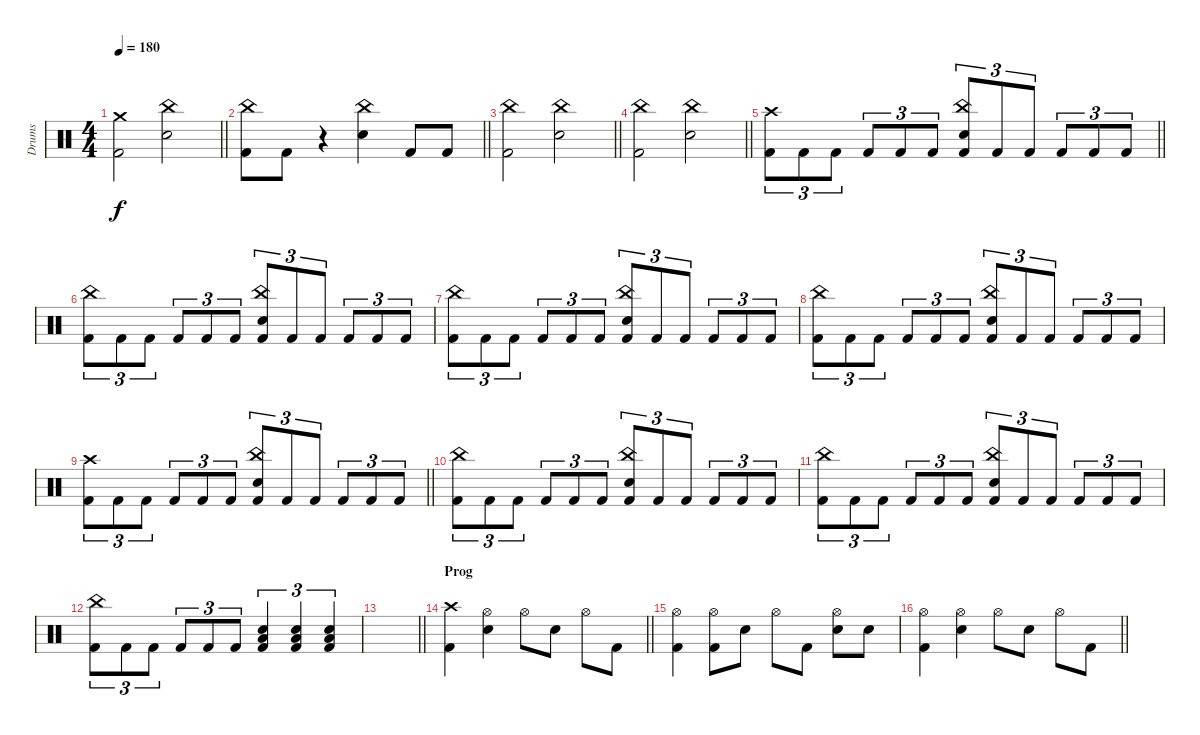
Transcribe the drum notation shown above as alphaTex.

\track ("Drums" "Drums") {instrument percussion}
\staff {score}
\articulation defaults
\ts (4 4)
\tempo 180
\clef neutral
\barLineRight lightlight
\ks c
("Crash medium (hit)" "Kick (hit) 2").2{dy f} ("China (hit)" "Snare (hit) 2").2 |
\barLineRight lightlight
("China (hit)" "Kick (hit) 2").8 "Kick (hit) 2".8 r.4 ("China (hit)" "Snare (hit) 2").4 "Kick (hit) 2".8 "Kick (hit) 2".8 |
\barLineRight lightlight
("China (hit)" "Kick (hit) 2").2 ("China (hit)" "Snare (hit) 2").2 |
\barLineRight lightlight
("China (hit)" "Kick (hit) 2").2 ("China (hit)" "Snare (hit) 2").2 |
\barLineRight lightlight
("Crash high (hit)" "Kick (hit) 2").8{tu (3 2)} "Kick (hit) 2".8{tu (3 2)} "Kick (hit) 2".8{tu (3 2)} "Kick (hit) 2".8{tu (3 2)} "Kick (hit) 2".8{tu (3 2)} "Kick (hit) 2".8{tu (3 2)} ("China (hit)" "Snare (hit) 2" "Kick (hit) 2").8{tu (3 2)} "Kick (hit) 2".8{tu (3 2)} "Kick (hit) 2".8{tu (3 2)} "Kick (hit) 2".8{tu (3 2)} "Kick (hit) 2".8{tu (3 2)} "Kick (hit) 2".8{tu (3 2)} |
("China (hit)" "Kick (hit) 2").8{tu (3 2)} "Kick (hit) 2".8{tu (3 2)} "Kick (hit) 2".8{tu (3 2)} "Kick (hit) 2".8{tu (3 2)} "Kick (hit) 2".8{tu (3 2)} "Kick (hit) 2".8{tu (3 2)} ("China (hit)" "Snare (hit) 2" "Kick (hit) 2").8{tu (3 2)} "Kick (hit) 2".8{tu (3 2)} "Kick (hit) 2".8{tu (3 2)} "Kick (hit) 2".8{tu (3 2)} "Kick (hit) 2".8{tu (3 2)} "Kick (hit) 2".8{tu (3 2)} |
("China (hit)" "Kick (hit) 2").8{tu (3 2)} "Kick (hit) 2".8{tu (3 2)} "Kick (hit) 2".8{tu (3 2)} "Kick (hit) 2".8{tu (3 2)} "Kick (hit) 2".8{tu (3 2)} "Kick (hit) 2".8{tu (3 2)} ("China (hit)" "Snare (hit) 2" "Kick (hit) 2").8{tu (3 2)} "Kick (hit) 2".8{tu (3 2)} "Kick (hit) 2".8{tu (3 2)} "Kick (hit) 2".8{tu (3 2)} "Kick (hit) 2".8{tu (3 2)} "Kick (hit) 2".8{tu (3 2)} |
("China (hit)" "Kick (hit) 2").8{tu (3 2)} "Kick (hit) 2".8{tu (3 2)} "Kick (hit) 2".8{tu (3 2)} "Kick (hit) 2".8{tu (3 2)} "Kick (hit) 2".8{tu (3 2)} "Kick (hit) 2".8{tu (3 2)} ("China (hit)" "Snare (hit) 2" "Kick (hit) 2").8{tu (3 2)} "Kick (hit) 2".8{tu (3 2)} "Kick (hit) 2".8{tu (3 2)} "Kick (hit) 2".8{tu (3 2)} "Kick (hit) 2".8{tu (3 2)} "Kick (hit) 2".8{tu (3 2)} |
\barLineRight lightlight
("Crash high (hit)" "Kick (hit) 2").8{tu (3 2)} "Kick (hit) 2".8{tu (3 2)} "Kick (hit) 2".8{tu (3 2)} "Kick (hit) 2".8{tu (3 2)} "Kick (hit) 2".8{tu (3 2)} "Kick (hit) 2".8{tu (3 2)} ("China (hit)" "Snare (hit) 2" "Kick (hit) 2").8{tu (3 2)} "Kick (hit) 2".8{tu (3 2)} "Kick (hit) 2".8{tu (3 2)} "Kick (hit) 2".8{tu (3 2)} "Kick (hit) 2".8{tu (3 2)} "Kick (hit) 2".8{tu (3 2)} |
("China (hit)" "Kick (hit) 2").8{tu (3 2)} "Kick (hit) 2".8{tu (3 2)} "Kick (hit) 2".8{tu (3 2)} "Kick (hit) 2".8{tu (3 2)} "Kick (hit) 2".8{tu (3 2)} "Kick (hit) 2".8{tu (3 2)} ("China (hit)" "Snare (hit) 2" "Kick (hit) 2").8{tu (3 2)} "Kick (hit) 2".8{tu (3 2)} "Kick (hit) 2".8{tu (3 2)} "Kick (hit) 2".8{tu (3 2)} "Kick (hit) 2".8{tu (3 2)} "Kick (hit) 2".8{tu (3 2)} |
("China (hit)" "Kick (hit) 2").8{tu (3 2)} "Kick (hit) 2".8{tu (3 2)} "Kick (hit) 2".8{tu (3 2)} "Kick (hit) 2".8{tu (3 2)} "Kick (hit) 2".8{tu (3 2)} "Kick (hit) 2".8{tu (3 2)} ("China (hit)" "Snare (hit) 2" "Kick (hit) 2").8{tu (3 2)} "Kick (hit) 2".8{tu (3 2)} "Kick (hit) 2".8{tu (3 2)} "Kick (hit) 2".8{tu (3 2)} "Kick (hit) 2".8{tu (3 2)} "Kick (hit) 2".8{tu (3 2)} |
("China (hit)" "Kick (hit) 2").8{tu (3 2)} "Kick (hit) 2".8{tu (3 2)} "Kick (hit) 2".8{tu (3 2)} "Kick (hit) 2".8{tu (3 2)} "Kick (hit) 2".8{tu (3 2)} "Kick (hit) 2".8{tu (3 2)} ("Low Tom (hit)" "Snare (hit) 2" "Kick (hit) 2").4{tu (3 2)} ("Low Tom (hit)" "Snare (hit) 2" "Kick (hit) 2").4{tu (3 2)} ("Low Tom (hit)" "Snare (hit) 2" "Kick (hit) 2").4{tu (3 2)} |
\barLineRight lightlight
|
\section ("" "Prog")
\barLineRight lightlight
("Crash high (hit)" "Kick (hit) 2").4 ("Hi-Hat (open)" "Snare (hit) 2").4 "Hi-Hat (open)".8 "Snare (hit) 2".8 "Hi-Hat (open)".8 "Kick (hit) 2".8 |
("Hi-Hat (open)" "Kick (hit) 2").4 ("Hi-Hat (open)" "Kick (hit) 2").8 "Snare (hit) 2".8 "Hi-Hat (open)".8 "Kick (hit) 2".8 ("Hi-Hat (open)" "Snare (hit) 2").8 "Snare (hit) 2".8 |
\barLineRight lightlight
("Hi-Hat (open)" "Kick (hit) 2").4 ("Hi-Hat (open)" "Snare (hit) 2").4 "Hi-Hat (open)".8 "Snare (hit) 2".8 "Hi-Hat (open)".8 "Kick (hit) 2".8
